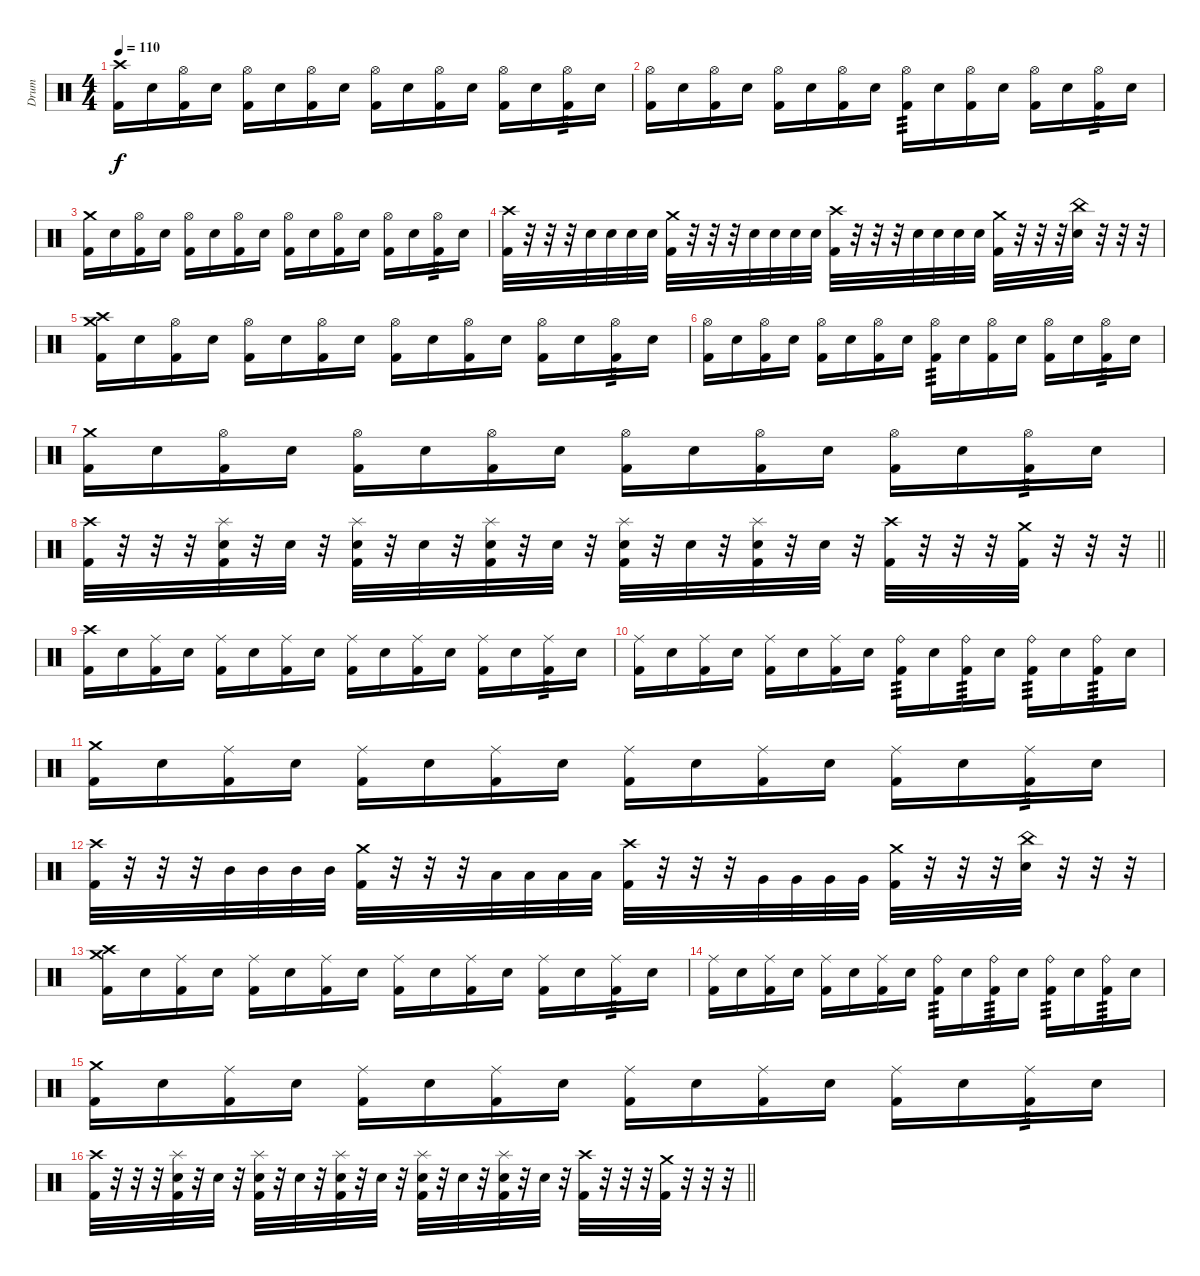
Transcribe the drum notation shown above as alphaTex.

\track ("Drum" "Drum") {instrument percussion}
\staff {score}
\articulation defaults
\ts (4 4)
\section ("" "")
\tempo 110
\clef neutral
\ks c
("Crash high (hit)" "Kick (hit) 2").16{dy f} "Snare (hit) 2".16 ("Hi-Hat (open)" "Kick (hit) 2").16 "Snare (hit) 2".16 ("Hi-Hat (open)" "Kick (hit) 2").16 "Snare (hit) 2".16 ("Hi-Hat (open)" "Kick (hit) 2").16 "Snare (hit) 2".16 ("Hi-Hat (open)" "Kick (hit) 2").16 "Snare (hit) 2".16 ("Hi-Hat (open)" "Kick (hit) 2").16 "Snare (hit) 2".16 ("Hi-Hat (open)" "Kick (hit) 2").16 "Snare (hit) 2".16 ("Hi-Hat (open)" "Kick (hit) 2").16{tp 3} "Snare (hit) 2".16 |
("Hi-Hat (open)" "Kick (hit) 2").16 "Snare (hit) 2".16 ("Hi-Hat (open)" "Kick (hit) 2").16 "Snare (hit) 2".16 ("Hi-Hat (open)" "Kick (hit) 2").16 "Snare (hit) 2".16 ("Hi-Hat (open)" "Kick (hit) 2").16 "Snare (hit) 2".16 ("Hi-Hat (open)" "Kick (hit) 2").16{tp 3} "Snare (hit) 2".16 ("Hi-Hat (open)" "Kick (hit) 2").16 "Snare (hit) 2".16 ("Hi-Hat (open)" "Kick (hit) 2").16 "Snare (hit) 2".16 ("Hi-Hat (open)" "Kick (hit) 2").16{tp 3} "Snare (hit) 2".16 |
("Crash medium (hit)" "Kick (hit) 2").16 "Snare (hit) 2".16 ("Hi-Hat (open)" "Kick (hit) 2").16 "Snare (hit) 2".16 ("Hi-Hat (open)" "Kick (hit) 2").16 "Snare (hit) 2".16 ("Hi-Hat (open)" "Kick (hit) 2").16 "Snare (hit) 2".16 ("Hi-Hat (open)" "Kick (hit) 2").16 "Snare (hit) 2".16 ("Hi-Hat (open)" "Kick (hit) 2").16 "Snare (hit) 2".16 ("Hi-Hat (open)" "Kick (hit) 2").16 "Snare (hit) 2".16 ("Hi-Hat (open)" "Kick (hit) 2").16{tp 3} "Snare (hit) 2".16 |
("Crash high (hit)" "Kick (hit) 2").32 r.32 r.32 r.32 "Snare (hit) 2".32 "Snare (hit) 2".32 "Snare (hit) 2".32 "Snare (hit) 2".32 ("Crash medium (hit)" "Kick (hit) 2").32 r.32 r.32 r.32 "Snare (hit) 2".32 "Snare (hit) 2".32 "Snare (hit) 2".32 "Snare (hit) 2".32 ("Crash high (hit)" "Kick (hit) 2").32 r.32 r.32 r.32 "Snare (hit) 2".32 "Snare (hit) 2".32 "Snare (hit) 2".32 "Snare (hit) 2".32 ("Crash medium (hit)" "Kick (hit) 2").32 r.32 r.32 r.32 ("China (hit)" "Snare (hit) 2").32 r.32 r.32 r.32 |
("Crash high (hit)" "Crash medium (hit)" "Kick (hit) 2").16 "Snare (hit) 2".16 ("Hi-Hat (open)" "Kick (hit) 2").16 "Snare (hit) 2".16 ("Hi-Hat (open)" "Kick (hit) 2").16 "Snare (hit) 2".16 ("Hi-Hat (open)" "Kick (hit) 2").16 "Snare (hit) 2".16 ("Hi-Hat (open)" "Kick (hit) 2").16 "Snare (hit) 2".16 ("Hi-Hat (open)" "Kick (hit) 2").16 "Snare (hit) 2".16 ("Hi-Hat (open)" "Kick (hit) 2").16 "Snare (hit) 2".16 ("Hi-Hat (open)" "Kick (hit) 2").16{tp 3} "Snare (hit) 2".16 |
("Hi-Hat (open)" "Kick (hit) 2").16 "Snare (hit) 2".16 ("Hi-Hat (open)" "Kick (hit) 2").16 "Snare (hit) 2".16 ("Hi-Hat (open)" "Kick (hit) 2").16 "Snare (hit) 2".16 ("Hi-Hat (open)" "Kick (hit) 2").16 "Snare (hit) 2".16 ("Hi-Hat (open)" "Kick (hit) 2").16{tp 3} "Snare (hit) 2".16 ("Hi-Hat (open)" "Kick (hit) 2").16 "Snare (hit) 2".16 ("Hi-Hat (open)" "Kick (hit) 2").16 "Snare (hit) 2".16 ("Hi-Hat (open)" "Kick (hit) 2").16{tp 3} "Snare (hit) 2".16 |
("Crash medium (hit)" "Kick (hit) 2").16 "Snare (hit) 2".16 ("Hi-Hat (open)" "Kick (hit) 2").16 "Snare (hit) 2".16 ("Hi-Hat (open)" "Kick (hit) 2").16 "Snare (hit) 2".16 ("Hi-Hat (open)" "Kick (hit) 2").16 "Snare (hit) 2".16 ("Hi-Hat (open)" "Kick (hit) 2").16 "Snare (hit) 2".16 ("Hi-Hat (open)" "Kick (hit) 2").16 "Snare (hit) 2".16 ("Hi-Hat (open)" "Kick (hit) 2").16 "Snare (hit) 2".16 ("Hi-Hat (open)" "Kick (hit) 2").16{tp 3} "Snare (hit) 2".16 |
\barLineRight lightlight
("Crash high (hit)" "Kick (hit) 2").32 r.32 r.32 r.32 ("Splash (hit)" "Snare (hit) 2" "Kick (hit) 2").32 r.32 "Snare (hit) 2".32 r.32 ("Splash (hit)" "Snare (hit) 2" "Kick (hit) 2").32 r.32 "Snare (hit) 2".32 r.32 ("Splash (hit)" "Snare (hit) 2" "Kick (hit) 2").32 r.32 "Snare (hit) 2".32 r.32 ("Splash (hit)" "Snare (hit) 2" "Kick (hit) 2").32 r.32 "Snare (hit) 2".32 r.32 ("Splash (hit)" "Snare (hit) 2" "Kick (hit) 2").32 r.32 "Snare (hit) 2".32 r.32 ("Crash high (hit)" "Kick (hit) 2").32 r.32 r.32 r.32 ("Crash medium (hit)" "Kick (hit) 2").32 r.32 r.32 r.32 |
\section ("" "")
("Crash high (hit)" "Kick (hit) 2").16 "Snare (hit) 2".16 ("Ride (middle)" "Kick (hit) 2").16 "Snare (hit) 2".16 ("Ride (middle)" "Kick (hit) 2").16 "Snare (hit) 2".16 ("Ride (middle)" "Kick (hit) 2").16 "Snare (hit) 2".16 ("Ride (middle)" "Kick (hit) 2").16 "Snare (hit) 2".16 ("Ride (middle)" "Kick (hit) 2").16 "Snare (hit) 2".16 ("Ride (middle)" "Kick (hit) 2").16 "Snare (hit) 2".16 ("Ride (middle)" "Kick (hit) 2").16{tp 3} "Snare (hit) 2".16 |
("Ride (middle)" "Kick (hit) 2").16 "Snare (hit) 2".16 ("Ride (middle)" "Kick (hit) 2").16 "Snare (hit) 2".16 ("Ride (middle)" "Kick (hit) 2").16 "Snare (hit) 2".16 ("Ride (middle)" "Kick (hit) 2").16 "Snare (hit) 2".16 ("Ride (bell)" "Kick (hit) 2").16{tp 3} "Snare (hit) 2".16 ("Ride (bell)" "Kick (hit) 2").16{tp 3} "Snare (hit) 2".16 ("Ride (bell)" "Kick (hit) 2").16{tp 3} "Snare (hit) 2".16 ("Ride (bell)" "Kick (hit) 2").16{tp 3} "Snare (hit) 2".16 |
("Crash medium (hit)" "Kick (hit) 2").16 "Snare (hit) 2".16 ("Ride (middle)" "Kick (hit) 2").16 "Snare (hit) 2".16 ("Ride (middle)" "Kick (hit) 2").16 "Snare (hit) 2".16 ("Ride (middle)" "Kick (hit) 2").16 "Snare (hit) 2".16 ("Ride (middle)" "Kick (hit) 2").16 "Snare (hit) 2".16 ("Ride (middle)" "Kick (hit) 2").16 "Snare (hit) 2".16 ("Ride (middle)" "Kick (hit) 2").16 "Snare (hit) 2".16 ("Ride (middle)" "Kick (hit) 2").16{tp 3} "Snare (hit) 2".16 |
("Crash high (hit)" "Kick (hit) 2").32 r.32 r.32 r.32 "Mid Tom (hit)".32 "Mid Tom (hit)".32 "Mid Tom (hit)".32 "Mid Tom (hit)".32 ("Crash medium (hit)" "Kick (hit) 2").32 r.32 r.32 r.32 "Low Tom (hit)".32 "Low Tom (hit)".32 "Low Tom (hit)".32 "Low Tom (hit)".32 ("Crash high (hit)" "Kick (hit) 2").32 r.32 r.32 r.32 "Very Low Tom (hit)".32 "Very Low Tom (hit)".32 "Very Low Tom (hit)".32 "Very Low Tom (hit)".32 ("Crash medium (hit)" "Kick (hit) 2").32 r.32 r.32 r.32 ("China (hit)" "Snare (hit) 2").32 r.32 r.32 r.32 |
("Crash high (hit)" "Crash medium (hit)" "Kick (hit) 2").16 "Snare (hit) 2".16 ("Ride (middle)" "Kick (hit) 2").16 "Snare (hit) 2".16 ("Ride (middle)" "Kick (hit) 2").16 "Snare (hit) 2".16 ("Ride (middle)" "Kick (hit) 2").16 "Snare (hit) 2".16 ("Ride (middle)" "Kick (hit) 2").16 "Snare (hit) 2".16 ("Ride (middle)" "Kick (hit) 2").16 "Snare (hit) 2".16 ("Ride (middle)" "Kick (hit) 2").16 "Snare (hit) 2".16 ("Ride (middle)" "Kick (hit) 2").16{tp 3} "Snare (hit) 2".16 |
("Ride (middle)" "Kick (hit) 2").16 "Snare (hit) 2".16 ("Ride (middle)" "Kick (hit) 2").16 "Snare (hit) 2".16 ("Ride (middle)" "Kick (hit) 2").16 "Snare (hit) 2".16 ("Ride (middle)" "Kick (hit) 2").16 "Snare (hit) 2".16 ("Ride (bell)" "Kick (hit) 2").16{tp 3} "Snare (hit) 2".16 ("Ride (bell)" "Kick (hit) 2").16{tp 3} "Snare (hit) 2".16 ("Ride (bell)" "Kick (hit) 2").16{tp 3} "Snare (hit) 2".16 ("Ride (bell)" "Kick (hit) 2").16{tp 3} "Snare (hit) 2".16 |
("Crash medium (hit)" "Kick (hit) 2").16 "Snare (hit) 2".16 ("Ride (middle)" "Kick (hit) 2").16 "Snare (hit) 2".16 ("Ride (middle)" "Kick (hit) 2").16 "Snare (hit) 2".16 ("Ride (middle)" "Kick (hit) 2").16 "Snare (hit) 2".16 ("Ride (middle)" "Kick (hit) 2").16 "Snare (hit) 2".16 ("Ride (middle)" "Kick (hit) 2").16 "Snare (hit) 2".16 ("Ride (middle)" "Kick (hit) 2").16 "Snare (hit) 2".16 ("Ride (middle)" "Kick (hit) 2").16{tp 3} "Snare (hit) 2".16 |
\barLineRight lightlight
("Crash high (hit)" "Kick (hit) 2").32 r.32 r.32 r.32 ("Splash (hit)" "Snare (hit) 2" "Kick (hit) 2").32 r.32 "Snare (hit) 2".32 r.32 ("Splash (hit)" "Snare (hit) 2" "Kick (hit) 2").32 r.32 "Snare (hit) 2".32 r.32 ("Splash (hit)" "Snare (hit) 2" "Kick (hit) 2").32 r.32 "Snare (hit) 2".32 r.32 ("Splash (hit)" "Snare (hit) 2" "Kick (hit) 2").32 r.32 "Snare (hit) 2".32 r.32 ("Splash (hit)" "Snare (hit) 2" "Kick (hit) 2").32 r.32 "Snare (hit) 2".32 r.32 ("Crash high (hit)" "Kick (hit) 2").32 r.32 r.32 r.32 ("Crash medium (hit)" "Kick (hit) 2").32 r.32 r.32 r.32
